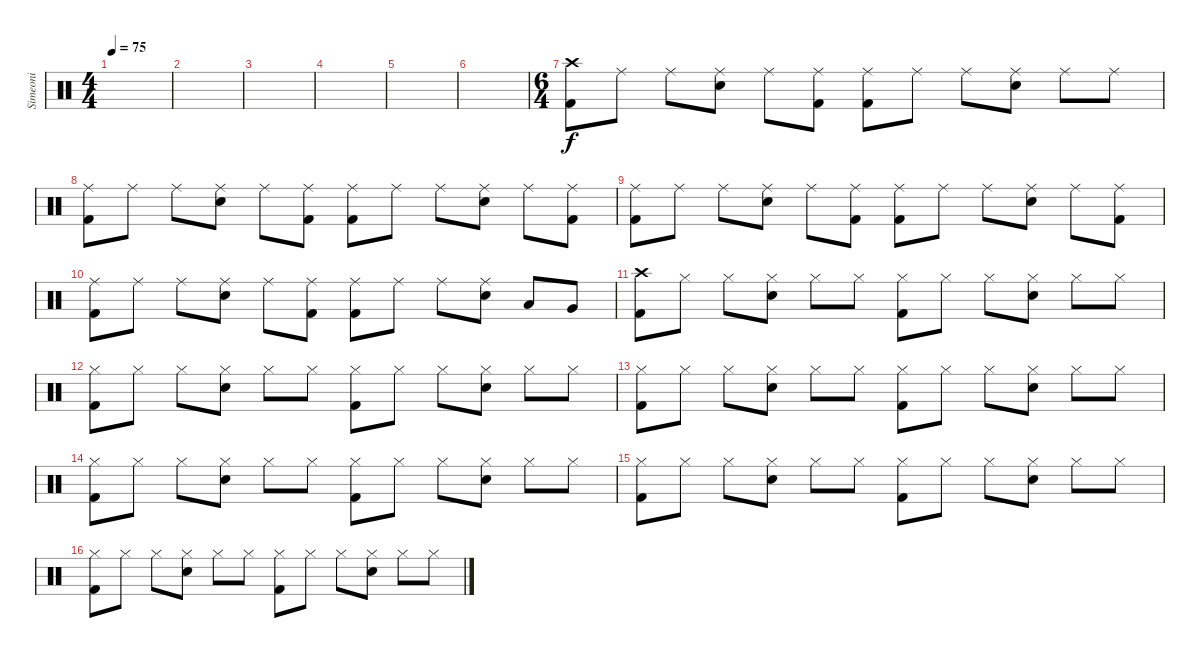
\track ("Simeoni" "Simeoni") {instrument percussion}
\staff {score}
\articulation defaults
\ts (4 4)
\tempo 75
\clef neutral
\ks c
|
|
|
|
|
|
\ts (6 4)
("Crash high (hit)" "Kick (hit) 2").8 "Ride (middle)".8 "Ride (middle)".8 ("Ride (middle)" "Electric Snare (hit)").8 "Ride (middle)".8 ("Ride (middle)" "Kick (hit) 2").8 ("Ride (middle)" "Kick (hit) 2").8 "Ride (middle)".8 "Ride (middle)".8 ("Ride (middle)" "Electric Snare (hit)").8 "Ride (middle)".8 "Ride (middle)".8 |
("Ride (middle)" "Kick (hit) 2").8 "Ride (middle)".8 "Ride (middle)".8 ("Ride (middle)" "Electric Snare (hit)").8 "Ride (middle)".8 ("Ride (middle)" "Kick (hit) 2").8 ("Ride (middle)" "Kick (hit) 2").8 "Ride (middle)".8 "Ride (middle)".8 ("Ride (middle)" "Electric Snare (hit)").8 "Ride (middle)".8 ("Ride (middle)" "Kick (hit) 2").8 |
("Ride (middle)" "Kick (hit) 2").8 "Ride (middle)".8 "Ride (middle)".8 ("Ride (middle)" "Electric Snare (hit)").8 "Ride (middle)".8 ("Ride (middle)" "Kick (hit) 2").8 ("Ride (middle)" "Kick (hit) 2").8 "Ride (middle)".8 "Ride (middle)".8 ("Ride (middle)" "Electric Snare (hit)").8 "Ride (middle)".8 ("Ride (middle)" "Kick (hit) 2").8 |
("Ride (middle)" "Kick (hit) 2").8 "Ride (middle)".8 "Ride (middle)".8 ("Ride (middle)" "Electric Snare (hit)").8 "Ride (middle)".8 ("Ride (middle)" "Kick (hit) 2").8 ("Ride (middle)" "Kick (hit) 2").8 "Ride (middle)".8 "Ride (middle)".8 ("Ride (middle)" "Electric Snare (hit)").8 "Low Tom (hit)".8 "Very Low Tom (hit)".8 |
("Crash high (hit)" "Kick (hit) 2").8 "Hi-Hat (closed)".8 "Hi-Hat (closed)".8 ("Hi-Hat (closed)" "Electric Snare (hit)").8 "Hi-Hat (closed)".8 "Hi-Hat (closed)".8 ("Hi-Hat (closed)" "Kick (hit) 2").8 "Hi-Hat (closed)".8 "Hi-Hat (closed)".8 ("Hi-Hat (closed)" "Electric Snare (hit)").8 "Hi-Hat (closed)".8 "Hi-Hat (closed)".8 |
("Hi-Hat (closed)" "Kick (hit) 2").8 "Hi-Hat (closed)".8 "Hi-Hat (closed)".8 ("Hi-Hat (closed)" "Electric Snare (hit)").8 "Hi-Hat (closed)".8 "Hi-Hat (closed)".8 ("Hi-Hat (closed)" "Kick (hit) 2").8 "Hi-Hat (closed)".8 "Hi-Hat (closed)".8 ("Hi-Hat (closed)" "Electric Snare (hit)").8 "Hi-Hat (closed)".8 "Hi-Hat (closed)".8 |
("Hi-Hat (closed)" "Kick (hit) 2").8 "Hi-Hat (closed)".8 "Hi-Hat (closed)".8 ("Hi-Hat (closed)" "Electric Snare (hit)").8 "Hi-Hat (closed)".8 "Hi-Hat (closed)".8 ("Hi-Hat (closed)" "Kick (hit) 2").8 "Hi-Hat (closed)".8 "Hi-Hat (closed)".8 ("Hi-Hat (closed)" "Electric Snare (hit)").8 "Hi-Hat (closed)".8 "Hi-Hat (closed)".8 |
("Hi-Hat (closed)" "Kick (hit) 2").8 "Hi-Hat (closed)".8 "Hi-Hat (closed)".8 ("Hi-Hat (closed)" "Electric Snare (hit)").8 "Hi-Hat (closed)".8 "Hi-Hat (closed)".8 ("Hi-Hat (closed)" "Kick (hit) 2").8 "Hi-Hat (closed)".8 "Hi-Hat (closed)".8 ("Hi-Hat (closed)" "Electric Snare (hit)").8 "Hi-Hat (closed)".8 "Hi-Hat (closed)".8 |
("Hi-Hat (closed)" "Kick (hit) 2").8 "Hi-Hat (closed)".8 "Hi-Hat (closed)".8 ("Hi-Hat (closed)" "Electric Snare (hit)").8 "Hi-Hat (closed)".8 "Hi-Hat (closed)".8 ("Hi-Hat (closed)" "Kick (hit) 2").8 "Hi-Hat (closed)".8 "Hi-Hat (closed)".8 ("Hi-Hat (closed)" "Electric Snare (hit)").8 "Hi-Hat (closed)".8 "Hi-Hat (closed)".8 |
("Hi-Hat (closed)" "Kick (hit) 2").8 "Hi-Hat (closed)".8 "Hi-Hat (closed)".8 ("Hi-Hat (closed)" "Electric Snare (hit)").8 "Hi-Hat (closed)".8 "Hi-Hat (closed)".8 ("Hi-Hat (closed)" "Kick (hit) 2").8 "Hi-Hat (closed)".8 "Hi-Hat (closed)".8 ("Hi-Hat (closed)" "Electric Snare (hit)").8 "Hi-Hat (closed)".8 "Hi-Hat (closed)".8
